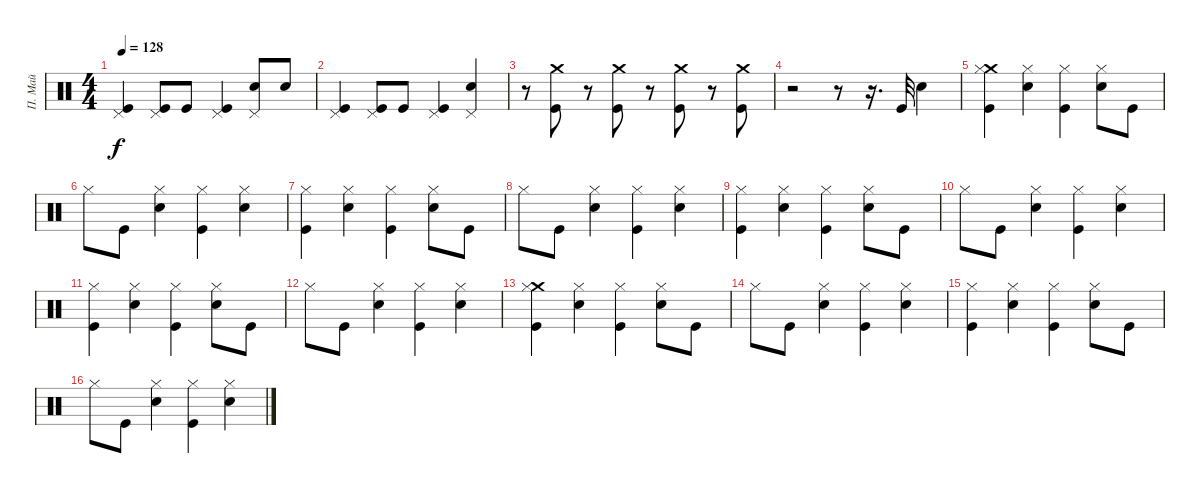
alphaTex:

\track ("П. Май" "П. Май") {instrument percussion}
\staff {score}
\articulation defaults
\ts (4 4)
\tempo 128
\clef neutral
\ks c
("Pedal Hi-Hat (hit)" "Kick (hit)").4{dy f} ("Pedal Hi-Hat (hit)" "Kick (hit)").8 "Kick (hit)".8 ("Pedal Hi-Hat (hit)" "Kick (hit)").4 ("Pedal Hi-Hat (hit)" "Snare (hit) 2").8 "Snare (hit) 2".8 |
("Pedal Hi-Hat (hit)" "Kick (hit)").4 ("Pedal Hi-Hat (hit)" "Kick (hit)").8 "Kick (hit)".8 ("Pedal Hi-Hat (hit)" "Kick (hit)").4 ("Pedal Hi-Hat (hit)" "Snare (hit) 2").4 |
r.8 ("Crash medium (hit)" "Kick (hit)").8 r.8 ("Crash medium (hit)" "Kick (hit)").8 r.8 ("Crash medium (hit)" "Kick (hit)").8 r.8 ("Crash medium (hit)" "Kick (hit)").8 |
r.2 r.8 r.16{d} "Kick (hit)".32 "Snare (hit) 2".4 |
("Crash medium (hit)" "Hi-Hat (closed)" "Kick (hit)").4 ("Hi-Hat (closed)" "Snare (hit) 2").4 ("Hi-Hat (closed)" "Kick (hit)").4 ("Hi-Hat (closed)" "Snare (hit) 2").8 "Kick (hit)".8 |
"Hi-Hat (closed)".8 "Kick (hit)".8 ("Hi-Hat (closed)" "Snare (hit) 2").4 ("Hi-Hat (closed)" "Kick (hit)").4 ("Hi-Hat (closed)" "Snare (hit) 2").4 |
("Hi-Hat (closed)" "Kick (hit)").4 ("Hi-Hat (closed)" "Snare (hit) 2").4 ("Hi-Hat (closed)" "Kick (hit)").4 ("Hi-Hat (closed)" "Snare (hit) 2").8 "Kick (hit)".8 |
"Hi-Hat (closed)".8 "Kick (hit)".8 ("Hi-Hat (closed)" "Snare (hit) 2").4 ("Hi-Hat (closed)" "Kick (hit)").4 ("Hi-Hat (closed)" "Snare (hit) 2").4 |
("Hi-Hat (closed)" "Kick (hit)").4 ("Hi-Hat (closed)" "Snare (hit) 2").4 ("Hi-Hat (closed)" "Kick (hit)").4 ("Hi-Hat (closed)" "Snare (hit) 2").8 "Kick (hit)".8 |
"Hi-Hat (closed)".8 "Kick (hit)".8 ("Hi-Hat (closed)" "Snare (hit) 2").4 ("Hi-Hat (closed)" "Kick (hit)").4 ("Hi-Hat (closed)" "Snare (hit) 2").4 |
("Hi-Hat (closed)" "Kick (hit)").4 ("Hi-Hat (closed)" "Snare (hit) 2").4 ("Hi-Hat (closed)" "Kick (hit)").4 ("Hi-Hat (closed)" "Snare (hit) 2").8 "Kick (hit)".8 |
"Hi-Hat (closed)".8 "Kick (hit)".8 ("Hi-Hat (closed)" "Snare (hit) 2").4 ("Hi-Hat (closed)" "Kick (hit)").4 ("Hi-Hat (closed)" "Snare (hit) 2").4 |
("Crash medium (hit)" "Hi-Hat (closed)" "Kick (hit)").4 ("Hi-Hat (closed)" "Snare (hit) 2").4 ("Hi-Hat (closed)" "Kick (hit)").4 ("Hi-Hat (closed)" "Snare (hit) 2").8 "Kick (hit)".8 |
"Hi-Hat (closed)".8 "Kick (hit)".8 ("Hi-Hat (closed)" "Snare (hit) 2").4 ("Hi-Hat (closed)" "Kick (hit)").4 ("Hi-Hat (closed)" "Snare (hit) 2").4 |
("Hi-Hat (closed)" "Kick (hit)").4 ("Hi-Hat (closed)" "Snare (hit) 2").4 ("Hi-Hat (closed)" "Kick (hit)").4 ("Hi-Hat (closed)" "Snare (hit) 2").8 "Kick (hit)".8 |
"Hi-Hat (closed)".8 "Kick (hit)".8 ("Hi-Hat (closed)" "Snare (hit) 2").4 ("Hi-Hat (closed)" "Kick (hit)").4 ("Hi-Hat (closed)" "Snare (hit) 2").4
